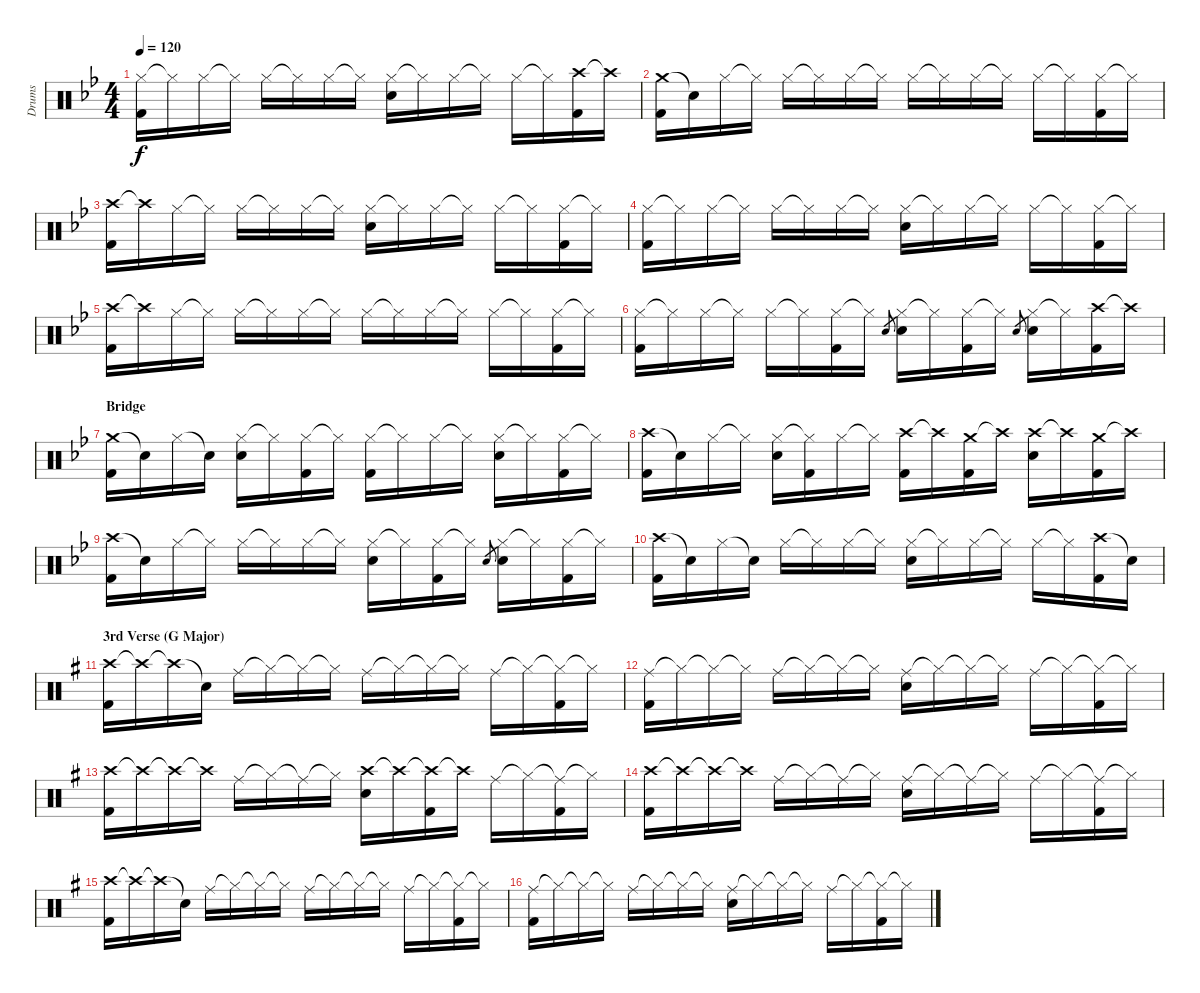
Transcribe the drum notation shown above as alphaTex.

\track ("Drums" "Drums") {instrument percussion}
\staff {score}
\articulation defaults
\ts (4 4)
\tempo 120
\clef neutral
\ks bb
("Hi-Hat (closed)" "Kick (hit) 2").16{dy f} "Hi-Hat (closed)"{t}.16 "Hi-Hat (closed)".16 "Hi-Hat (closed)"{t}.16 "Hi-Hat (closed)".16 "Hi-Hat (closed)"{t}.16 "Hi-Hat (closed)".16 "Hi-Hat (closed)"{t}.16 ("Hi-Hat (closed)" "Snare (hit) 2").16 "Hi-Hat (closed)"{t}.16 "Hi-Hat (closed)".16 "Hi-Hat (closed)"{t}.16 "Hi-Hat (closed)".16 "Hi-Hat (closed)"{t}.16 ("Crash high (hit)" "Kick (hit) 2").16 "Crash high (hit)"{t}.16 |
("Crash medium (hit)" "Kick (hit) 2").16 "Snare (hit)"{t}.16 "Hi-Hat (closed)".16 "Hi-Hat (closed)"{t}.16 "Hi-Hat (closed)".16 "Hi-Hat (closed)"{t}.16 "Hi-Hat (closed)".16 "Hi-Hat (closed)"{t}.16 "Hi-Hat (closed)".16 "Hi-Hat (closed)"{t}.16 "Hi-Hat (closed)".16 "Hi-Hat (closed)"{t}.16 "Hi-Hat (closed)".16 "Hi-Hat (closed)"{t}.16 ("Hi-Hat (closed)" "Kick (hit) 2").16 "Hi-Hat (closed)"{t}.16 |
("Crash high (hit)" "Kick (hit) 2").16 "Crash high (hit)"{t}.16 "Hi-Hat (closed)".16 "Hi-Hat (closed)"{t}.16 "Hi-Hat (closed)".16 "Hi-Hat (closed)"{t}.16 "Hi-Hat (closed)".16 "Hi-Hat (closed)"{t}.16 ("Hi-Hat (closed)" "Snare (hit) 2").16 "Hi-Hat (closed)"{t}.16 "Hi-Hat (closed)".16 "Hi-Hat (closed)"{t}.16 "Hi-Hat (closed)".16 "Hi-Hat (closed)"{t}.16 ("Hi-Hat (closed)" "Kick (hit) 2").16 "Hi-Hat (closed)"{t}.16 |
("Hi-Hat (closed)" "Kick (hit) 2").16 "Hi-Hat (closed)"{t}.16 "Hi-Hat (closed)".16 "Hi-Hat (closed)"{t}.16 "Hi-Hat (closed)".16 "Hi-Hat (closed)"{t}.16 "Hi-Hat (closed)".16 "Hi-Hat (closed)"{t}.16 ("Hi-Hat (closed)" "Snare (hit) 2").16 "Hi-Hat (closed)"{t}.16 "Hi-Hat (closed)".16 "Hi-Hat (closed)"{t}.16 "Hi-Hat (closed)".16 "Hi-Hat (closed)"{t}.16 ("Hi-Hat (closed)" "Kick (hit) 2").16 "Hi-Hat (closed)"{t}.16 |
("Crash high (hit)" "Kick (hit) 2").16 "Crash high (hit)"{t}.16 "Hi-Hat (closed)".16 "Hi-Hat (closed)"{t}.16 "Hi-Hat (closed)".16 "Hi-Hat (closed)"{t}.16 "Hi-Hat (closed)".16 "Hi-Hat (closed)"{t}.16 "Hi-Hat (closed)".16 "Hi-Hat (closed)"{t}.16 "Hi-Hat (closed)".16 "Hi-Hat (closed)"{t}.16 "Hi-Hat (closed)".16 "Hi-Hat (closed)"{t}.16 ("Hi-Hat (closed)" "Kick (hit) 2").16 "Hi-Hat (closed)"{t}.16 |
("Hi-Hat (closed)" "Kick (hit) 2").16 "Hi-Hat (closed)"{t}.16 "Hi-Hat (closed)".16 "Hi-Hat (closed)"{t}.16 "Hi-Hat (closed)".16 "Hi-Hat (closed)"{t}.16 ("Hi-Hat (closed)" "Kick (hit) 2").16 "Hi-Hat (closed)"{t}.16 "Snare (hit) 2".8{gr} ("Hi-Hat (closed)" "Snare (hit) 2").16 "Hi-Hat (closed)"{t}.16 ("Hi-Hat (closed)" "Kick (hit) 2").16 "Hi-Hat (closed)"{t}.16 "Snare (hit) 2".8{gr} ("Hi-Hat (closed)" "Snare (hit) 2").16 "Hi-Hat (closed)"{t}.16 ("Crash high (hit)" "Kick (hit) 2").16 "Crash high (hit)"{t}.16 |
\section ("" "Bridge")
("Crash medium (hit)" "Kick (hit) 2").16 "Snare (hit)"{t}.16 "Hi-Hat (closed)".16 "Snare (hit)"{t}.16 ("Hi-Hat (closed)" "Snare (hit) 2").16 "Hi-Hat (closed)"{t}.16 ("Hi-Hat (closed)" "Kick (hit) 2").16 "Hi-Hat (closed)"{t}.16 ("Hi-Hat (closed)" "Kick (hit) 2").16 "Hi-Hat (closed)"{t}.16 "Hi-Hat (closed)".16 "Hi-Hat (closed)"{t}.16 ("Hi-Hat (closed)" "Snare (hit) 2").16 "Hi-Hat (closed)"{t}.16 ("Hi-Hat (closed)" "Kick (hit) 2").16 "Hi-Hat (closed)"{t}.16 |
("Crash high (hit)" "Kick (hit) 2").16 "Snare (hit)"{t}.16 "Hi-Hat (closed)".16 "Hi-Hat (closed)"{t}.16 ("Hi-Hat (closed)" "Snare (hit) 2").16 ("Hi-Hat (closed)"{t} "Kick (hit) 2").16 "Hi-Hat (closed)".16 "Hi-Hat (closed)"{t}.16 ("Crash high (hit)" "Kick (hit) 2").16 "Crash high (hit)"{t}.16 ("Crash medium (hit)" "Kick (hit) 2").16 "Crash high (hit)"{t}.16 ("Crash high (hit)" "Snare (hit) 2").16 "Crash high (hit)"{t}.16 ("Crash medium (hit)" "Kick (hit) 2").16 "Crash high (hit)"{t}.16 |
("Crash high (hit)" "Kick (hit) 2").16 "Snare (hit)"{t}.16 "Hi-Hat (closed)".16 "Hi-Hat (closed)"{t}.16 "Hi-Hat (closed)".16 "Hi-Hat (closed)"{t}.16 "Hi-Hat (closed)".16 "Hi-Hat (closed)"{t}.16 ("Hi-Hat (closed)" "Snare (hit) 2").16 "Hi-Hat (closed)"{t}.16 ("Hi-Hat (closed)" "Kick (hit) 2").16 "Hi-Hat (closed)"{t}.16 "Snare (hit) 2".8{gr} ("Hi-Hat (closed)" "Snare (hit) 2").16 "Hi-Hat (closed)"{t}.16 ("Hi-Hat (closed)" "Kick (hit) 2").16 "Hi-Hat (closed)"{t}.16 |
("Crash high (hit)" "Kick (hit) 2").16 "Snare (hit)"{t}.16 "Hi-Hat (closed)".16 "Snare (hit)"{t}.16 "Hi-Hat (closed)".16 "Hi-Hat (closed)"{t}.16 "Hi-Hat (closed)".16 "Hi-Hat (closed)"{t}.16 ("Hi-Hat (closed)" "Snare (hit) 2").16 "Hi-Hat (closed)"{t}.16 "Hi-Hat (closed)".16 "Hi-Hat (closed)"{t}.16 "Hi-Hat (closed)".16 "Hi-Hat (closed)"{t}.16 ("Crash high (hit)" "Kick (hit) 2").16 "Snare (hit)"{t}.16 |
\section ("" "3rd Verse (G Major)")
\ks g
("Crash high (hit)" "Kick (hit) 2").16 "Crash high (hit)"{t}.16 "Crash high (hit)"{t}.16 "Snare (hit)"{t}.16 "Ride (middle)".16 "Hi-Hat (closed)"{t}.16 "Hi-Hat (closed)"{t}.16 "Hi-Hat (closed)"{t}.16 "Ride (middle)".16 "Hi-Hat (closed)"{t}.16 "Hi-Hat (closed)"{t}.16 "Hi-Hat (closed)"{t}.16 "Ride (middle)".16 "Hi-Hat (closed)"{t}.16 ("Hi-Hat (closed)"{t} "Kick (hit) 2").16 "Hi-Hat (closed)"{t}.16 |
("Ride (middle)" "Kick (hit) 2").16 "Hi-Hat (closed)"{t}.16 "Hi-Hat (closed)"{t}.16 "Hi-Hat (closed)"{t}.16 "Ride (middle)".16 "Hi-Hat (closed)"{t}.16 "Hi-Hat (closed)"{t}.16 "Hi-Hat (closed)"{t}.16 ("Ride (middle)" "Snare (hit) 2").16 "Hi-Hat (closed)"{t}.16 "Hi-Hat (closed)"{t}.16 "Hi-Hat (closed)"{t}.16 "Ride (middle)".16 "Hi-Hat (closed)"{t}.16 ("Hi-Hat (closed)"{t} "Kick (hit) 2").16 "Hi-Hat (closed)"{t}.16 |
("Crash high (hit)" "Kick (hit) 2").16 "Crash high (hit)"{t}.16 "Crash high (hit)"{t}.16 "Crash high (hit)"{t}.16 "Ride (middle)".16 "Hi-Hat (closed)"{t}.16 "Ride (middle)"{t}.16 "Hi-Hat (closed)"{t}.16 ("Crash high (hit)" "Snare (hit) 2").16 "Crash high (hit)"{t}.16 ("Crash high (hit)"{t} "Kick (hit) 2").16 "Crash high (hit)"{t}.16 "Ride (middle)".16 "Hi-Hat (closed)"{t}.16 ("Ride (middle)"{t} "Kick (hit) 2").16 "Hi-Hat (closed)"{t}.16 |
("Crash high (hit)" "Kick (hit) 2").16 "Crash high (hit)"{t}.16 "Crash high (hit)"{t}.16 "Crash high (hit)"{t}.16 "Ride (middle)".16 "Hi-Hat (closed)"{t}.16 "Ride (middle)"{t}.16 "Hi-Hat (closed)"{t}.16 ("Ride (middle)" "Snare (hit) 2").16 "Hi-Hat (closed)"{t}.16 "Ride (middle)"{t}.16 "Hi-Hat (closed)"{t}.16 "Ride (middle)".16 "Hi-Hat (closed)"{t}.16 ("Ride (middle)"{t} "Kick (hit) 2").16 "Hi-Hat (closed)"{t}.16 |
("Crash high (hit)" "Kick (hit) 2").16 "Crash high (hit)"{t}.16 "Crash high (hit)"{t}.16 "Snare (hit)"{t}.16 "Ride (middle)".16 "Hi-Hat (closed)"{t}.16 "Hi-Hat (closed)"{t}.16 "Hi-Hat (closed)"{t}.16 "Ride (middle)".16 "Hi-Hat (closed)"{t}.16 "Hi-Hat (closed)"{t}.16 "Hi-Hat (closed)"{t}.16 "Ride (middle)".16 "Hi-Hat (closed)"{t}.16 ("Hi-Hat (closed)"{t} "Kick (hit) 2").16 "Hi-Hat (closed)"{t}.16 |
("Ride (middle)" "Kick (hit) 2").16 "Hi-Hat (closed)"{t}.16 "Hi-Hat (closed)"{t}.16 "Hi-Hat (closed)"{t}.16 "Ride (middle)".16 "Hi-Hat (closed)"{t}.16 "Hi-Hat (closed)"{t}.16 "Hi-Hat (closed)"{t}.16 ("Ride (middle)" "Snare (hit) 2").16 "Hi-Hat (closed)"{t}.16 "Hi-Hat (closed)"{t}.16 "Hi-Hat (closed)"{t}.16 "Ride (middle)".16 "Hi-Hat (closed)"{t}.16 ("Hi-Hat (closed)"{t} "Kick (hit) 2").16 "Hi-Hat (closed)"{t}.16
